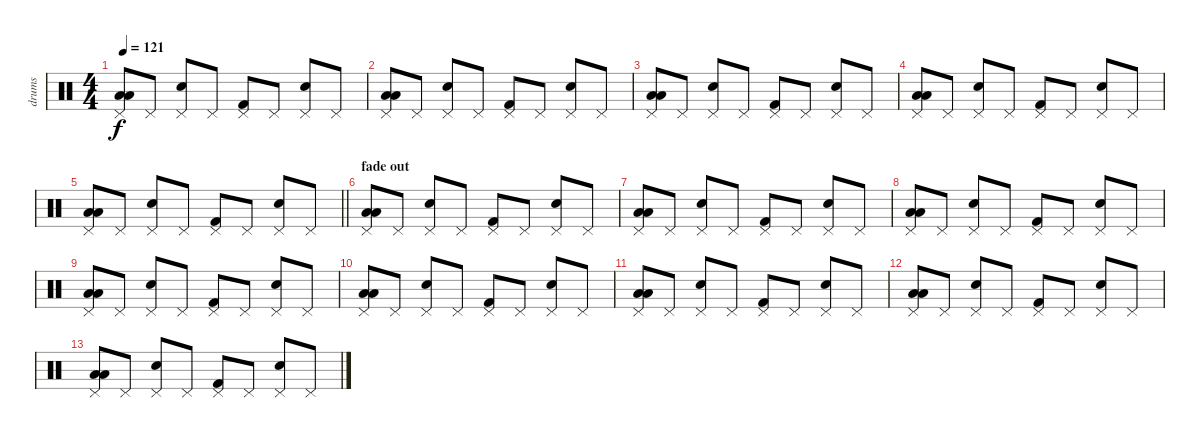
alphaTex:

\track ("drums" "drums") {instrument percussion}
\staff {score}
\articulation defaults
\ts (4 4)
\tempo 121
\clef neutral
\ks c
("Low Floor Tom (hit)" "Low Floor Tom (hit)" "Pedal Hi-Hat (hit)").8{dy f} "Pedal Hi-Hat (hit)".8 ("Hand Clap (hit)" "Pedal Hi-Hat (hit)").8 "Pedal Hi-Hat (hit)".8 ("Kick (hit) 2" "Pedal Hi-Hat (hit)").8 "Pedal Hi-Hat (hit)".8 ("Snare (hit) 2" "Pedal Hi-Hat (hit)").8 "Pedal Hi-Hat (hit)".8 |
("Low Floor Tom (hit)" "Low Floor Tom (hit)" "Pedal Hi-Hat (hit)").8 "Pedal Hi-Hat (hit)".8 ("Hand Clap (hit)" "Pedal Hi-Hat (hit)").8 "Pedal Hi-Hat (hit)".8 ("Kick (hit) 2" "Pedal Hi-Hat (hit)").8 "Pedal Hi-Hat (hit)".8 ("Snare (hit) 2" "Pedal Hi-Hat (hit)").8 "Pedal Hi-Hat (hit)".8 |
("Low Floor Tom (hit)" "Low Floor Tom (hit)" "Pedal Hi-Hat (hit)").8 "Pedal Hi-Hat (hit)".8 ("Hand Clap (hit)" "Pedal Hi-Hat (hit)").8 "Pedal Hi-Hat (hit)".8 ("Kick (hit) 2" "Pedal Hi-Hat (hit)").8 "Pedal Hi-Hat (hit)".8 ("Snare (hit) 2" "Pedal Hi-Hat (hit)").8 "Pedal Hi-Hat (hit)".8 |
("Low Floor Tom (hit)" "Low Floor Tom (hit)" "Pedal Hi-Hat (hit)").8 "Pedal Hi-Hat (hit)".8 ("Hand Clap (hit)" "Pedal Hi-Hat (hit)").8 "Pedal Hi-Hat (hit)".8 ("Kick (hit) 2" "Pedal Hi-Hat (hit)").8 "Pedal Hi-Hat (hit)".8 ("Snare (hit) 2" "Pedal Hi-Hat (hit)").8 "Pedal Hi-Hat (hit)".8 |
\barLineRight lightlight
("Low Floor Tom (hit)" "Low Floor Tom (hit)" "Pedal Hi-Hat (hit)").8 "Pedal Hi-Hat (hit)".8 ("Hand Clap (hit)" "Pedal Hi-Hat (hit)").8 "Pedal Hi-Hat (hit)".8 ("Kick (hit) 2" "Pedal Hi-Hat (hit)").8 "Pedal Hi-Hat (hit)".8 ("Snare (hit) 2" "Pedal Hi-Hat (hit)").8 "Pedal Hi-Hat (hit)".8 |
\section ("" "fade out")
("Low Floor Tom (hit)" "Low Floor Tom (hit)" "Pedal Hi-Hat (hit)").8 "Pedal Hi-Hat (hit)".8 ("Hand Clap (hit)" "Pedal Hi-Hat (hit)").8 "Pedal Hi-Hat (hit)".8 ("Kick (hit) 2" "Pedal Hi-Hat (hit)").8 "Pedal Hi-Hat (hit)".8 ("Snare (hit) 2" "Pedal Hi-Hat (hit)").8 "Pedal Hi-Hat (hit)".8 |
("Low Floor Tom (hit)" "Low Floor Tom (hit)" "Pedal Hi-Hat (hit)").8 "Pedal Hi-Hat (hit)".8 ("Hand Clap (hit)" "Pedal Hi-Hat (hit)").8 "Pedal Hi-Hat (hit)".8 ("Kick (hit) 2" "Pedal Hi-Hat (hit)").8 "Pedal Hi-Hat (hit)".8 ("Snare (hit) 2" "Pedal Hi-Hat (hit)").8 "Pedal Hi-Hat (hit)".8 |
("Low Floor Tom (hit)" "Low Floor Tom (hit)" "Pedal Hi-Hat (hit)").8 "Pedal Hi-Hat (hit)".8 ("Hand Clap (hit)" "Pedal Hi-Hat (hit)").8 "Pedal Hi-Hat (hit)".8 ("Kick (hit) 2" "Pedal Hi-Hat (hit)").8 "Pedal Hi-Hat (hit)".8 ("Snare (hit) 2" "Pedal Hi-Hat (hit)").8 "Pedal Hi-Hat (hit)".8 |
("Low Floor Tom (hit)" "Low Floor Tom (hit)" "Pedal Hi-Hat (hit)").8 "Pedal Hi-Hat (hit)".8 ("Hand Clap (hit)" "Pedal Hi-Hat (hit)").8 "Pedal Hi-Hat (hit)".8 ("Kick (hit) 2" "Pedal Hi-Hat (hit)").8 "Pedal Hi-Hat (hit)".8 ("Snare (hit) 2" "Pedal Hi-Hat (hit)").8 "Pedal Hi-Hat (hit)".8 |
("Low Floor Tom (hit)" "Low Floor Tom (hit)" "Pedal Hi-Hat (hit)").8 "Pedal Hi-Hat (hit)".8 ("Hand Clap (hit)" "Pedal Hi-Hat (hit)").8 "Pedal Hi-Hat (hit)".8 ("Kick (hit) 2" "Pedal Hi-Hat (hit)").8 "Pedal Hi-Hat (hit)".8 ("Snare (hit) 2" "Pedal Hi-Hat (hit)").8 "Pedal Hi-Hat (hit)".8 |
("Low Floor Tom (hit)" "Low Floor Tom (hit)" "Pedal Hi-Hat (hit)").8 "Pedal Hi-Hat (hit)".8 ("Hand Clap (hit)" "Pedal Hi-Hat (hit)").8 "Pedal Hi-Hat (hit)".8 ("Kick (hit) 2" "Pedal Hi-Hat (hit)").8 "Pedal Hi-Hat (hit)".8 ("Snare (hit) 2" "Pedal Hi-Hat (hit)").8 "Pedal Hi-Hat (hit)".8 |
("Low Floor Tom (hit)" "Low Floor Tom (hit)" "Pedal Hi-Hat (hit)").8 "Pedal Hi-Hat (hit)".8 ("Hand Clap (hit)" "Pedal Hi-Hat (hit)").8 "Pedal Hi-Hat (hit)".8 ("Kick (hit) 2" "Pedal Hi-Hat (hit)").8 "Pedal Hi-Hat (hit)".8 ("Snare (hit) 2" "Pedal Hi-Hat (hit)").8 "Pedal Hi-Hat (hit)".8 |
("Low Floor Tom (hit)" "Low Floor Tom (hit)" "Pedal Hi-Hat (hit)").8 "Pedal Hi-Hat (hit)".8 ("Hand Clap (hit)" "Pedal Hi-Hat (hit)").8 "Pedal Hi-Hat (hit)".8 ("Kick (hit) 2" "Pedal Hi-Hat (hit)").8 "Pedal Hi-Hat (hit)".8 ("Snare (hit) 2" "Pedal Hi-Hat (hit)").8 "Pedal Hi-Hat (hit)".8
